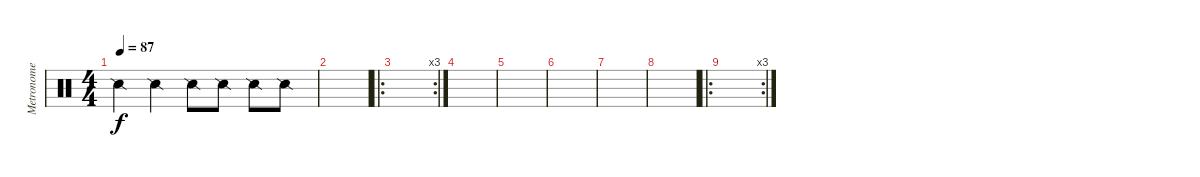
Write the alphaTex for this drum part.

\track ("Metronome" "Metronome") {instrument percussion}
\staff {score}
\articulation defaults
\ts (4 4)
\tempo 87
\clef neutral
\ks c "Snare (side stick) 2".4{dy f} "Snare (side stick) 2".4 "Snare (side stick) 2".8 "Snare (side stick) 2".8 "Snare (side stick) 2".8 "Snare (side stick) 2".8
|
|
\ro
\rc 3
|
|
|
|
|
|
\ro
\rc 3
